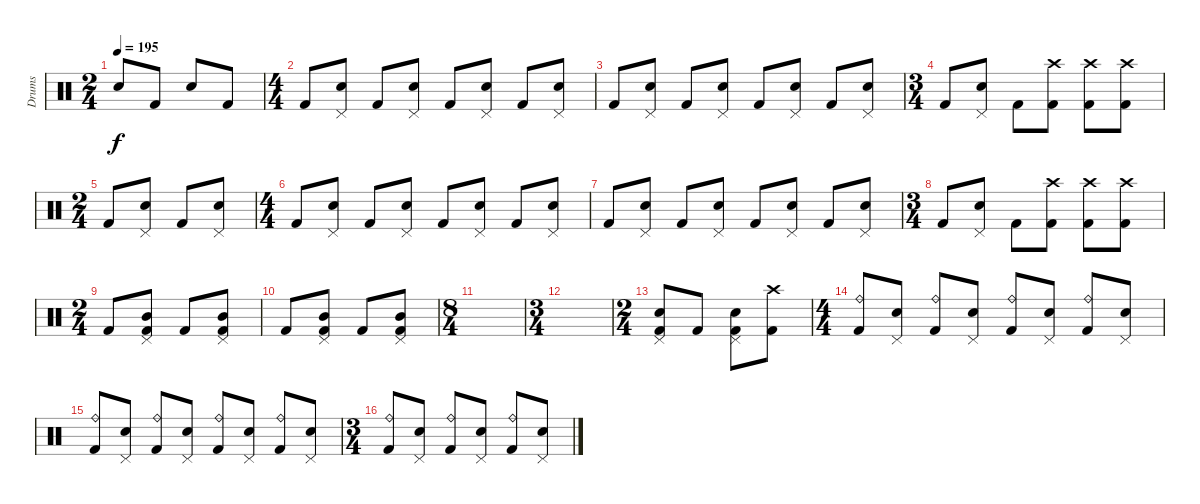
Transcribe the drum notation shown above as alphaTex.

\track ("Drums" "Drums") {instrument percussion}
\staff
\articulation defaults
\ts (2 4)
\tempo 195
\clef neutral
\ks c "Electric Snare (hit)".8{dy f} "Kick (hit) 2".8 "Electric Snare (hit)".8 "Kick (hit) 2".8
|
\ts (4 4)
"Kick (hit) 2".8 ("Electric Snare (hit)" "Pedal Hi-Hat (hit)").8 "Kick (hit) 2".8 ("Electric Snare (hit)" "Pedal Hi-Hat (hit)").8 "Kick (hit) 2".8 ("Electric Snare (hit)" "Pedal Hi-Hat (hit)").8 "Kick (hit) 2".8 ("Electric Snare (hit)" "Pedal Hi-Hat (hit)").8 |
"Kick (hit) 2".8 ("Electric Snare (hit)" "Pedal Hi-Hat (hit)").8 "Kick (hit) 2".8 ("Electric Snare (hit)" "Pedal Hi-Hat (hit)").8 "Kick (hit) 2".8 ("Electric Snare (hit)" "Pedal Hi-Hat (hit)").8 "Kick (hit) 2".8 ("Electric Snare (hit)" "Pedal Hi-Hat (hit)").8 |
\ts (3 4)
"Kick (hit) 2".8 ("Pedal Hi-Hat (hit)" "Electric Snare (hit)").8 "Kick (hit) 2".8 ("Crash high (hit)" "Kick (hit) 2").8 ("Crash high (hit)" "Kick (hit) 2").8 ("Crash high (hit)" "Kick (hit) 2").8 |
\ts (2 4)
"Kick (hit) 2".8 ("Pedal Hi-Hat (hit)" "Electric Snare (hit)").8 "Kick (hit) 2".8 ("Pedal Hi-Hat (hit)" "Electric Snare (hit)").8 |
\ts (4 4)
"Kick (hit) 2".8 ("Electric Snare (hit)" "Pedal Hi-Hat (hit)").8 "Kick (hit) 2".8 ("Electric Snare (hit)" "Pedal Hi-Hat (hit)").8 "Kick (hit) 2".8 ("Electric Snare (hit)" "Pedal Hi-Hat (hit)").8 "Kick (hit) 2".8 ("Electric Snare (hit)" "Pedal Hi-Hat (hit)").8 |
"Kick (hit) 2".8 ("Electric Snare (hit)" "Pedal Hi-Hat (hit)").8 "Kick (hit) 2".8 ("Electric Snare (hit)" "Pedal Hi-Hat (hit)").8 "Kick (hit) 2".8 ("Electric Snare (hit)" "Pedal Hi-Hat (hit)").8 "Kick (hit) 2".8 ("Electric Snare (hit)" "Pedal Hi-Hat (hit)").8 |
\ts (3 4)
"Kick (hit) 2".8 ("Pedal Hi-Hat (hit)" "Electric Snare (hit)").8 "Kick (hit) 2".8 ("Crash high (hit)" "Kick (hit) 2").8 ("Crash high (hit)" "Kick (hit) 2").8 ("Crash high (hit)" "Kick (hit) 2").8 |
\ts (2 4)
"Kick (hit) 2".8 ("Pedal Hi-Hat (hit)" "Mid Tom (hit)" "Kick (hit) 2").8 "Kick (hit) 2".8 ("Pedal Hi-Hat (hit)" "Mid Tom (hit)" "Kick (hit) 2").8 |
"Kick (hit) 2".8 ("Pedal Hi-Hat (hit)" "Mid Tom (hit)" "Kick (hit) 2").8 "Kick (hit) 2".8 ("Pedal Hi-Hat (hit)" "Mid Tom (hit)" "Kick (hit) 2").8 |
\ts (8 4)
|
\ts (3 4)
|
\ts (2 4)
("Pedal Hi-Hat (hit)" "Electric Snare (hit)" "Kick (hit) 2").8 "Kick (hit) 2".8 ("Pedal Hi-Hat (hit)" "Electric Snare (hit)" "Kick (hit) 2").8 ("Crash high (hit)" "Kick (hit) 2").8 |
\ts (4 4)
("Ride (bell)" "Kick (hit) 2").8 ("Electric Snare (hit)" "Pedal Hi-Hat (hit)").8 ("Ride (bell)" "Kick (hit) 2").8 ("Electric Snare (hit)" "Pedal Hi-Hat (hit)").8 ("Ride (bell)" "Kick (hit) 2").8 ("Electric Snare (hit)" "Pedal Hi-Hat (hit)").8 ("Ride (bell)" "Kick (hit) 2").8 ("Electric Snare (hit)" "Pedal Hi-Hat (hit)").8 |
("Ride (bell)" "Kick (hit) 2").8 ("Electric Snare (hit)" "Pedal Hi-Hat (hit)").8 ("Ride (bell)" "Kick (hit) 2").8 ("Electric Snare (hit)" "Pedal Hi-Hat (hit)").8 ("Ride (bell)" "Kick (hit) 2").8 ("Electric Snare (hit)" "Pedal Hi-Hat (hit)").8 ("Ride (bell)" "Kick (hit) 2").8 ("Electric Snare (hit)" "Pedal Hi-Hat (hit)").8 |
\ts (3 4)
("Ride (bell)" "Kick (hit) 2").8 ("Pedal Hi-Hat (hit)" "Electric Snare (hit)").8 ("Ride (bell)" "Kick (hit) 2").8 ("Pedal Hi-Hat (hit)" "Electric Snare (hit)").8 ("Ride (bell)" "Kick (hit) 2").8 ("Pedal Hi-Hat (hit)" "Electric Snare (hit)").8
